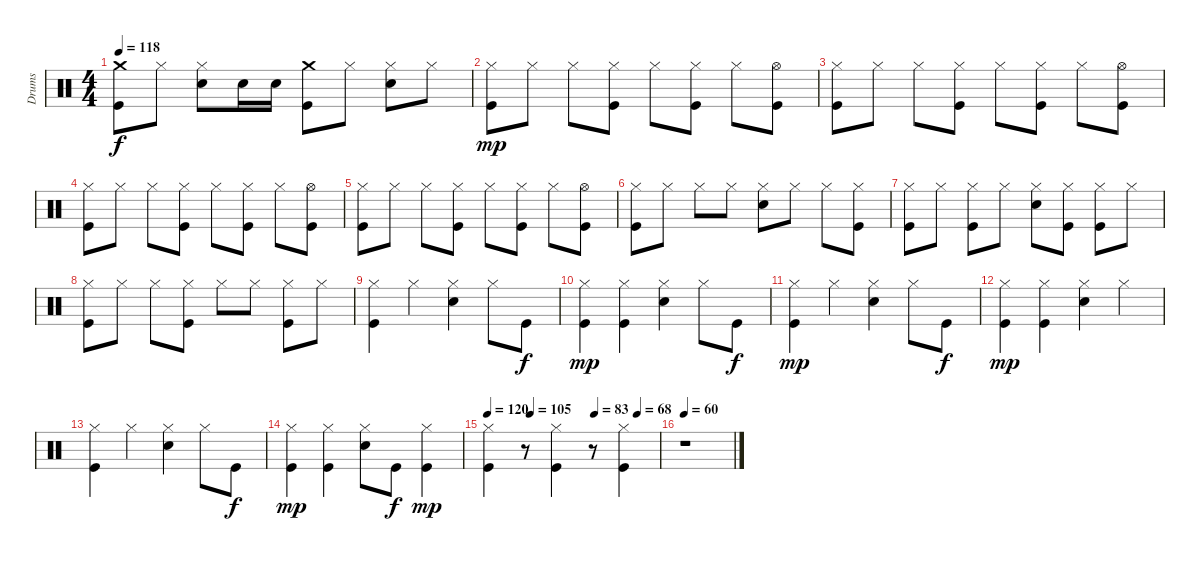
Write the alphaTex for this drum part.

\track ("Drums" "Drums") {instrument percussion}
\staff {score}
\articulation defaults
\ts (4 4)
\tempo 118
\clef neutral
\ks c
("Kick (hit)" "Crash medium (hit)").8{dy f} "Hi-Hat (closed)".8 ("Snare (hit) 2" "Hi-Hat (closed)").8 "Snare (hit) 2".16 "Snare (hit) 2".16 ("Kick (hit)" "Crash medium (hit)").8 "Hi-Hat (closed)".8 ("Snare (hit) 2" "Hi-Hat (closed)").8 "Hi-Hat (closed)".8 |
("Kick (hit)" "Hi-Hat (closed)").8{dy mp} "Hi-Hat (closed)".8 "Hi-Hat (closed)".8 ("Kick (hit)" "Hi-Hat (closed)").8 "Hi-Hat (closed)".8 ("Kick (hit)" "Hi-Hat (closed)").8 "Hi-Hat (closed)".8 ("Kick (hit)" "Hi-Hat (open)").8 |
("Kick (hit)" "Hi-Hat (closed)").8 "Hi-Hat (closed)".8 "Hi-Hat (closed)".8 ("Kick (hit)" "Hi-Hat (closed)").8 "Hi-Hat (closed)".8 ("Kick (hit)" "Hi-Hat (closed)").8 "Hi-Hat (closed)".8 ("Kick (hit)" "Hi-Hat (open)").8 |
("Kick (hit)" "Hi-Hat (closed)").8 "Hi-Hat (closed)".8 "Hi-Hat (closed)".8 ("Kick (hit)" "Hi-Hat (closed)").8 "Hi-Hat (closed)".8 ("Kick (hit)" "Hi-Hat (closed)").8 "Hi-Hat (closed)".8 ("Kick (hit)" "Hi-Hat (open)").8 |
("Kick (hit)" "Hi-Hat (closed)").8 "Hi-Hat (closed)".8 "Hi-Hat (closed)".8 ("Kick (hit)" "Hi-Hat (closed)").8 "Hi-Hat (closed)".8 ("Kick (hit)" "Hi-Hat (closed)").8 "Hi-Hat (closed)".8 ("Kick (hit)" "Hi-Hat (open)").8 |
("Kick (hit)" "Hi-Hat (closed)").8 "Hi-Hat (closed)".8 "Hi-Hat (closed)".8 "Hi-Hat (closed)".8 ("Snare (hit) 2" "Hi-Hat (closed)").8 "Hi-Hat (closed)".8 "Hi-Hat (closed)".8 ("Kick (hit)" "Hi-Hat (closed)").8 |
("Kick (hit)" "Hi-Hat (closed)").8 "Hi-Hat (closed)".8 ("Kick (hit)" "Hi-Hat (closed)").8 "Hi-Hat (closed)".8 ("Snare (hit) 2" "Hi-Hat (closed)").8 ("Kick (hit)" "Hi-Hat (closed)").8 ("Kick (hit)" "Hi-Hat (closed)").8 "Hi-Hat (closed)".8 |
("Kick (hit)" "Hi-Hat (closed)").8 "Hi-Hat (closed)".8 "Hi-Hat (closed)".8 ("Kick (hit)" "Hi-Hat (closed)").8 "Hi-Hat (closed)".8 "Hi-Hat (closed)".8 ("Kick (hit)" "Hi-Hat (closed)").8 "Hi-Hat (closed)".8 |
("Kick (hit)" "Hi-Hat (closed)").4 "Hi-Hat (closed)".4 ("Snare (hit) 2" "Hi-Hat (closed)").4 "Hi-Hat (closed)".8 "Kick (hit)".8{dy f} |
("Kick (hit)" "Hi-Hat (closed)").4{dy mp} ("Kick (hit)" "Hi-Hat (closed)").4 ("Snare (hit) 2" "Hi-Hat (closed)").4 "Hi-Hat (closed)".8 "Kick (hit)".8{dy f} |
("Kick (hit)" "Hi-Hat (closed)").4{dy mp} "Hi-Hat (closed)".4 ("Snare (hit) 2" "Hi-Hat (closed)").4 "Hi-Hat (closed)".8 "Kick (hit)".8{dy f} |
("Kick (hit)" "Hi-Hat (closed)").4{dy mp} ("Kick (hit)" "Hi-Hat (closed)").4 ("Snare (hit) 2" "Hi-Hat (closed)").4 "Hi-Hat (closed)".4 |
("Kick (hit)" "Hi-Hat (closed)").4 "Hi-Hat (closed)".4 ("Snare (hit) 2" "Hi-Hat (closed)").4 "Hi-Hat (closed)".8 "Kick (hit)".8{dy f} |
("Kick (hit)" "Hi-Hat (closed)").4{dy mp} ("Kick (hit)" "Hi-Hat (closed)").4 ("Snare (hit) 2" "Hi-Hat (closed)").8 "Kick (hit)".8{dy f} ("Kick (hit)" "Hi-Hat (closed)").4{dy mp} |
\tempo 120
\tempo (105 0.25)
\tempo (83 0.625)
\tempo (68 0.875)
("Kick (hit)" "Hi-Hat (closed)").4 r.8 ("Kick (hit)" "Hi-Hat (closed)").4 r.8 ("Kick (hit)" "Hi-Hat (closed)").4 |
\tempo 60
r.1
